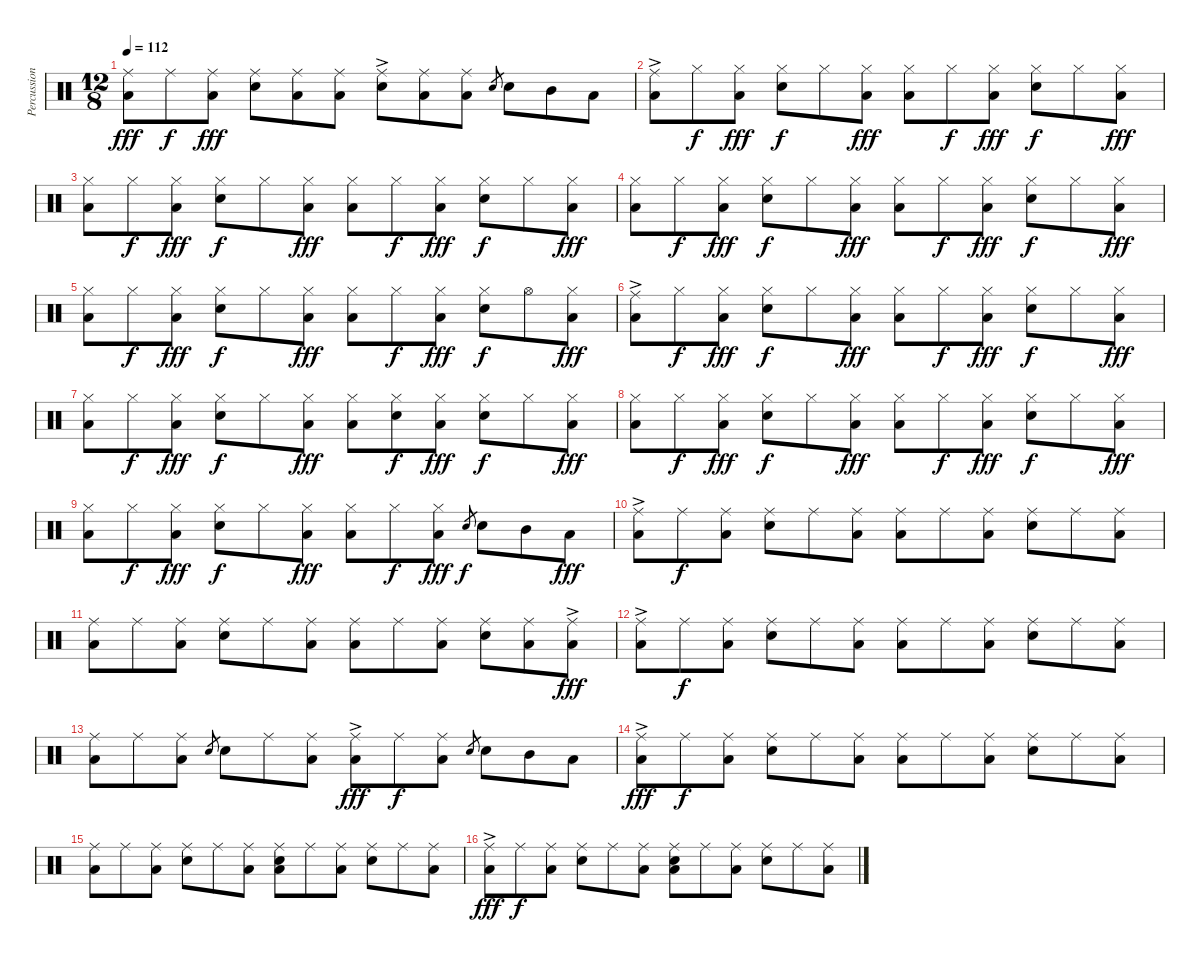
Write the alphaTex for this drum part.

\track ("Percussion" "Percussion") {instrument percussion}
\staff {score}
\articulation defaults
\ts (12 8)
\tempo 112
\clef neutral
\ks c
("Ride (middle)" "Low Floor Tom (hit)").8{dy fff} "Ride (middle)".8{dy f} ("Ride (middle)" "Low Floor Tom (hit)").8{dy fff} ("Ride (middle)" "Snare (hit) 2").8 ("Ride (middle)" "Low Floor Tom (hit)").8 ("Ride (middle)" "Low Floor Tom (hit)").8 ("Ride (middle)"{ac} "Snare (hit) 2").8 ("Ride (middle)" "Low Floor Tom (hit)").8 ("Ride (middle)" "Low Floor Tom (hit)").8 "Snare (hit) 2".8{gr} "Snare (hit) 2".8 "Mid Tom (hit)".8 "Low Tom (hit)".8 |
("Ride (middle)"{ac} "Low Floor Tom (hit)").8 "Hi-Hat (closed)".8{dy f} ("Hi-Hat (closed)" "Low Floor Tom (hit)").8{dy fff} ("Hi-Hat (closed)" "Snare (hit) 2").8{dy f} "Hi-Hat (closed)".8 ("Hi-Hat (closed)" "Low Floor Tom (hit)").8{dy fff} ("Hi-Hat (closed)" "Low Floor Tom (hit)").8 "Hi-Hat (closed)".8{dy f} ("Hi-Hat (closed)" "Low Floor Tom (hit)").8{dy fff} ("Hi-Hat (closed)" "Snare (hit) 2").8{dy f} "Hi-Hat (closed)".8 ("Hi-Hat (closed)" "Low Floor Tom (hit)").8{dy fff} |
("Hi-Hat (closed)" "Low Floor Tom (hit)").8 "Hi-Hat (closed)".8{dy f} ("Hi-Hat (closed)" "Low Floor Tom (hit)").8{dy fff} ("Hi-Hat (closed)" "Snare (hit) 2").8{dy f} "Hi-Hat (closed)".8 ("Hi-Hat (closed)" "Low Floor Tom (hit)").8{dy fff} ("Hi-Hat (closed)" "Low Floor Tom (hit)").8 "Hi-Hat (closed)".8{dy f} ("Hi-Hat (closed)" "Low Floor Tom (hit)").8{dy fff} ("Hi-Hat (closed)" "Snare (hit) 2").8{dy f} "Hi-Hat (closed)".8 ("Hi-Hat (closed)" "Low Floor Tom (hit)").8{dy fff} |
("Hi-Hat (closed)" "Low Floor Tom (hit)").8 "Hi-Hat (closed)".8{dy f} ("Hi-Hat (closed)" "Low Floor Tom (hit)").8{dy fff} ("Hi-Hat (closed)" "Snare (hit) 2").8{dy f} "Hi-Hat (closed)".8 ("Hi-Hat (closed)" "Low Floor Tom (hit)").8{dy fff} ("Hi-Hat (closed)" "Low Floor Tom (hit)").8 "Hi-Hat (closed)".8{dy f} ("Hi-Hat (closed)" "Low Floor Tom (hit)").8{dy fff} ("Hi-Hat (closed)" "Snare (hit) 2").8{dy f} "Hi-Hat (closed)".8 ("Hi-Hat (closed)" "Low Floor Tom (hit)").8{dy fff} |
("Hi-Hat (closed)" "Low Floor Tom (hit)").8 "Hi-Hat (closed)".8{dy f} ("Hi-Hat (closed)" "Low Floor Tom (hit)").8{dy fff} ("Hi-Hat (closed)" "Snare (hit) 2").8{dy f} "Hi-Hat (closed)".8 ("Hi-Hat (closed)" "Low Floor Tom (hit)").8{dy fff} ("Hi-Hat (closed)" "Low Floor Tom (hit)").8 "Hi-Hat (closed)".8{dy f} ("Hi-Hat (closed)" "Low Floor Tom (hit)").8{dy fff} ("Hi-Hat (closed)" "Snare (hit) 2").8{dy f} "Hi-Hat (open)".8 ("Hi-Hat (closed)" "Low Floor Tom (hit)").8{dy fff} |
("Ride (middle)"{ac} "Low Floor Tom (hit)").8 "Hi-Hat (closed)".8{dy f} ("Hi-Hat (closed)" "Low Floor Tom (hit)").8{dy fff} ("Hi-Hat (closed)" "Snare (hit) 2").8{dy f} "Hi-Hat (closed)".8 ("Hi-Hat (closed)" "Low Floor Tom (hit)").8{dy fff} ("Hi-Hat (closed)" "Low Floor Tom (hit)").8 "Hi-Hat (closed)".8{dy f} ("Hi-Hat (closed)" "Low Floor Tom (hit)").8{dy fff} ("Hi-Hat (closed)" "Snare (hit) 2").8{dy f} "Hi-Hat (closed)".8 ("Hi-Hat (closed)" "Low Floor Tom (hit)").8{dy fff} |
("Hi-Hat (closed)" "Low Floor Tom (hit)").8 "Hi-Hat (closed)".8{dy f} ("Hi-Hat (closed)" "Low Floor Tom (hit)").8{dy fff} ("Hi-Hat (closed)" "Snare (hit) 2").8{dy f} "Hi-Hat (closed)".8 ("Hi-Hat (closed)" "Low Floor Tom (hit)").8{dy fff} ("Hi-Hat (closed)" "Low Floor Tom (hit)").8 ("Hi-Hat (closed)" "Snare (hit) 2").8{dy f} ("Hi-Hat (closed)" "Low Floor Tom (hit)").8{dy fff} ("Hi-Hat (closed)" "Snare (hit) 2").8{dy f} "Hi-Hat (closed)".8 ("Hi-Hat (closed)" "Low Floor Tom (hit)").8{dy fff} |
("Hi-Hat (closed)" "Low Floor Tom (hit)").8 "Hi-Hat (closed)".8{dy f} ("Hi-Hat (closed)" "Low Floor Tom (hit)").8{dy fff} ("Hi-Hat (closed)" "Snare (hit) 2").8{dy f} "Hi-Hat (closed)".8 ("Hi-Hat (closed)" "Low Floor Tom (hit)").8{dy fff} ("Hi-Hat (closed)" "Low Floor Tom (hit)").8 "Hi-Hat (closed)".8{dy f} ("Hi-Hat (closed)" "Low Floor Tom (hit)").8{dy fff} ("Hi-Hat (closed)" "Snare (hit) 2").8{dy f} "Hi-Hat (closed)".8 ("Hi-Hat (closed)" "Low Floor Tom (hit)").8{dy fff} |
("Hi-Hat (closed)" "Low Floor Tom (hit)").8 "Hi-Hat (closed)".8{dy f} ("Hi-Hat (closed)" "Low Floor Tom (hit)").8{dy fff} ("Hi-Hat (closed)" "Snare (hit) 2").8{dy f} "Hi-Hat (closed)".8 ("Hi-Hat (closed)" "Low Floor Tom (hit)").8{dy fff} ("Hi-Hat (closed)" "Low Floor Tom (hit)").8 "Hi-Hat (closed)".8{dy f} ("Hi-Hat (closed)" "Low Floor Tom (hit)").8{dy fff} "Snare (hit) 2".8{gr dy f} "Snare (hit) 2".8 "Mid Tom (hit)".8 "Low Tom (hit)".8{dy fff} |
("Ride (middle)"{ac} "Low Floor Tom (hit)").8 "Ride (middle)".8{dy f} ("Ride (middle)" "Low Floor Tom (hit)").8 ("Ride (middle)" "Snare (hit) 2").8 "Ride (middle)".8 ("Ride (middle)" "Low Floor Tom (hit)").8 ("Ride (middle)" "Low Floor Tom (hit)").8 "Ride (middle)".8 ("Ride (middle)" "Low Floor Tom (hit)").8 ("Ride (middle)" "Snare (hit) 2").8 "Ride (middle)".8 ("Ride (middle)" "Low Floor Tom (hit)").8 |
("Ride (middle)" "Low Floor Tom (hit)").8 "Ride (middle)".8 ("Ride (middle)" "Low Floor Tom (hit)").8 ("Ride (middle)" "Snare (hit) 2").8 "Ride (middle)".8 ("Ride (middle)" "Low Floor Tom (hit)").8 ("Ride (middle)" "Low Floor Tom (hit)").8 "Ride (middle)".8 ("Ride (middle)" "Low Floor Tom (hit)").8 ("Ride (middle)" "Snare (hit) 2").8 ("Ride (middle)" "Low Floor Tom (hit)").8 ("Ride (middle)"{ac} "Low Floor Tom (hit)").8{dy fff} |
("Ride (middle)"{ac} "Low Floor Tom (hit)").8 "Ride (middle)".8{dy f} ("Ride (middle)" "Low Floor Tom (hit)").8 ("Ride (middle)" "Snare (hit) 2").8 "Ride (middle)".8 ("Ride (middle)" "Low Floor Tom (hit)").8 ("Ride (middle)" "Low Floor Tom (hit)").8 "Ride (middle)".8 ("Ride (middle)" "Low Floor Tom (hit)").8 ("Ride (middle)" "Snare (hit) 2").8 "Ride (middle)".8 ("Ride (middle)" "Low Floor Tom (hit)").8 |
("Ride (middle)" "Low Floor Tom (hit)").8 "Ride (middle)".8 ("Ride (middle)" "Low Floor Tom (hit)").8 "Snare (hit) 2".8{gr} "Snare (hit) 2".8 "Ride (middle)".8 ("Ride (middle)" "Low Floor Tom (hit)").8 ("Ride (middle)"{ac} "Low Floor Tom (hit)").8{dy fff} "Ride (middle)".8{dy f} ("Ride (middle)" "Low Floor Tom (hit)").8 "Snare (hit) 2".8{gr} "Snare (hit) 2".8 "Mid Tom (hit)".8 "Low Tom (hit)".8 |
("Ride (middle)"{ac} "Low Floor Tom (hit)").8{dy fff} "Ride (middle)".8{dy f} ("Ride (middle)" "Low Floor Tom (hit)").8 ("Ride (middle)" "Snare (hit) 2").8 "Ride (middle)".8 ("Ride (middle)" "Low Floor Tom (hit)").8 ("Ride (middle)" "Low Floor Tom (hit)").8 "Ride (middle)".8 ("Ride (middle)" "Low Floor Tom (hit)").8 ("Ride (middle)" "Snare (hit) 2").8 "Ride (middle)".8 ("Ride (middle)" "Low Floor Tom (hit)").8 |
("Ride (middle)" "Low Floor Tom (hit)").8 "Ride (middle)".8 ("Ride (middle)" "Low Floor Tom (hit)").8 ("Ride (middle)" "Snare (hit) 2").8 "Ride (middle)".8 ("Ride (middle)" "Low Floor Tom (hit)").8 ("Ride (middle)" "Snare (hit) 2" "Low Floor Tom (hit)").8 "Ride (middle)".8 ("Ride (middle)" "Low Floor Tom (hit)").8 ("Ride (middle)" "Snare (hit) 2").8 "Ride (middle)".8 ("Ride (middle)" "Low Floor Tom (hit)").8 |
("Ride (middle)"{ac} "Low Floor Tom (hit)").8{dy fff} "Ride (middle)".8{dy f} ("Ride (middle)" "Low Floor Tom (hit)").8 ("Ride (middle)" "Snare (hit) 2").8 "Ride (middle)".8 ("Ride (middle)" "Low Floor Tom (hit)").8 ("Ride (middle)" "Snare (hit) 2" "Low Floor Tom (hit)").8 "Ride (middle)".8 ("Ride (middle)" "Low Floor Tom (hit)").8 ("Ride (middle)" "Snare (hit) 2").8 "Ride (middle)".8 ("Ride (middle)" "Low Floor Tom (hit)").8
